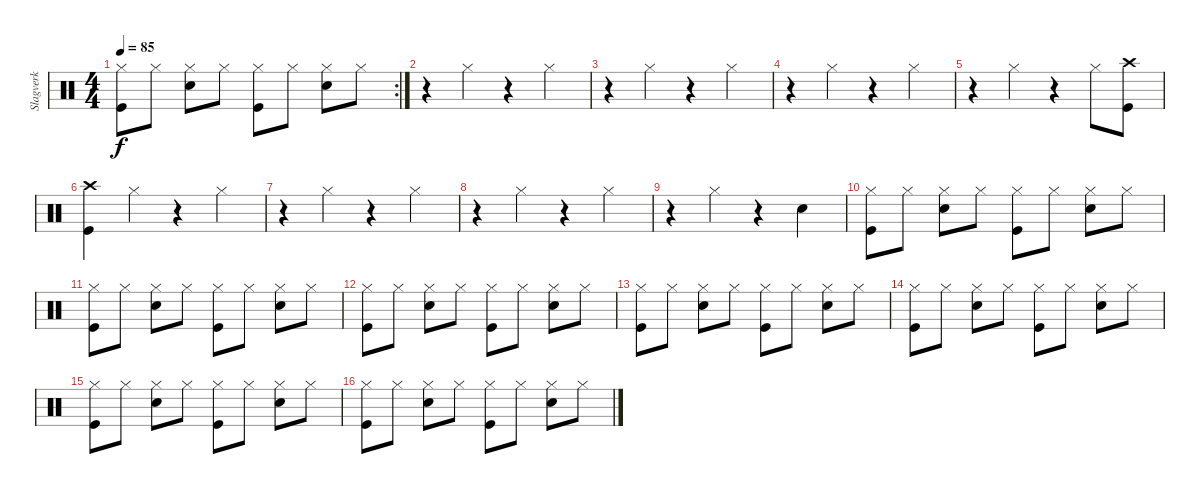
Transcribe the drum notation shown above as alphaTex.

\track ("Slagverk" "Slagverk") {instrument percussion}
\staff {score}
\articulation defaults
\rc 2
\ts (4 4)
\tempo 85
\clef neutral
\ks c
("Hi-Hat (closed)" "Kick (hit)").8{dy f} "Hi-Hat (closed)".8 ("Hi-Hat (closed)" "Electric Snare (hit)").8 "Hi-Hat (closed)".8 ("Hi-Hat (closed)" "Kick (hit)").8 "Hi-Hat (closed)".8 ("Hi-Hat (closed)" "Electric Snare (hit)").8 "Hi-Hat (closed)".8 |
r.4 "Hi-Hat (closed)".4 r.4 "Hi-Hat (closed)".4 |
r.4 "Hi-Hat (closed)".4 r.4 "Hi-Hat (closed)".4 |
r.4 "Hi-Hat (closed)".4 r.4 "Hi-Hat (closed)".4 |
r.4 "Hi-Hat (closed)".4 r.4 "Hi-Hat (closed)".8 ("Kick (hit)" "Crash high (hit)").8 |
("Crash high (hit)" "Kick (hit)").4 "Hi-Hat (closed)".4 r.4 "Hi-Hat (closed)".4 |
r.4 "Hi-Hat (closed)".4 r.4 "Hi-Hat (closed)".4 |
r.4 "Hi-Hat (closed)".4 r.4 "Hi-Hat (closed)".4 |
r.4 "Hi-Hat (closed)".4 r.4 "Electric Snare (hit)".4 |
("Hi-Hat (closed)" "Kick (hit)").8 "Hi-Hat (closed)".8 ("Hi-Hat (closed)" "Electric Snare (hit)").8 "Hi-Hat (closed)".8 ("Hi-Hat (closed)" "Kick (hit)").8 "Hi-Hat (closed)".8 ("Hi-Hat (closed)" "Electric Snare (hit)").8 "Hi-Hat (closed)".8 |
("Hi-Hat (closed)" "Kick (hit)").8 "Hi-Hat (closed)".8 ("Hi-Hat (closed)" "Electric Snare (hit)").8 "Hi-Hat (closed)".8 ("Hi-Hat (closed)" "Kick (hit)").8 "Hi-Hat (closed)".8 ("Hi-Hat (closed)" "Electric Snare (hit)").8 "Hi-Hat (closed)".8 |
("Hi-Hat (closed)" "Kick (hit)").8 "Hi-Hat (closed)".8 ("Hi-Hat (closed)" "Electric Snare (hit)").8 "Hi-Hat (closed)".8 ("Hi-Hat (closed)" "Kick (hit)").8 "Hi-Hat (closed)".8 ("Hi-Hat (closed)" "Electric Snare (hit)").8 "Hi-Hat (closed)".8 |
("Hi-Hat (closed)" "Kick (hit)").8 "Hi-Hat (closed)".8 ("Hi-Hat (closed)" "Electric Snare (hit)").8 "Hi-Hat (closed)".8 ("Hi-Hat (closed)" "Kick (hit)").8 "Hi-Hat (closed)".8 ("Hi-Hat (closed)" "Electric Snare (hit)").8 "Hi-Hat (closed)".8 |
("Hi-Hat (closed)" "Kick (hit)").8 "Hi-Hat (closed)".8 ("Hi-Hat (closed)" "Electric Snare (hit)").8 "Hi-Hat (closed)".8 ("Hi-Hat (closed)" "Kick (hit)").8 "Hi-Hat (closed)".8 ("Hi-Hat (closed)" "Electric Snare (hit)").8 "Hi-Hat (closed)".8 |
("Hi-Hat (closed)" "Kick (hit)").8 "Hi-Hat (closed)".8 ("Hi-Hat (closed)" "Electric Snare (hit)").8 "Hi-Hat (closed)".8 ("Hi-Hat (closed)" "Kick (hit)").8 "Hi-Hat (closed)".8 ("Hi-Hat (closed)" "Electric Snare (hit)").8 "Hi-Hat (closed)".8 |
("Hi-Hat (closed)" "Kick (hit)").8 "Hi-Hat (closed)".8 ("Hi-Hat (closed)" "Electric Snare (hit)").8 "Hi-Hat (closed)".8 ("Hi-Hat (closed)" "Kick (hit)").8 "Hi-Hat (closed)".8 ("Hi-Hat (closed)" "Electric Snare (hit)").8 "Hi-Hat (closed)".8
